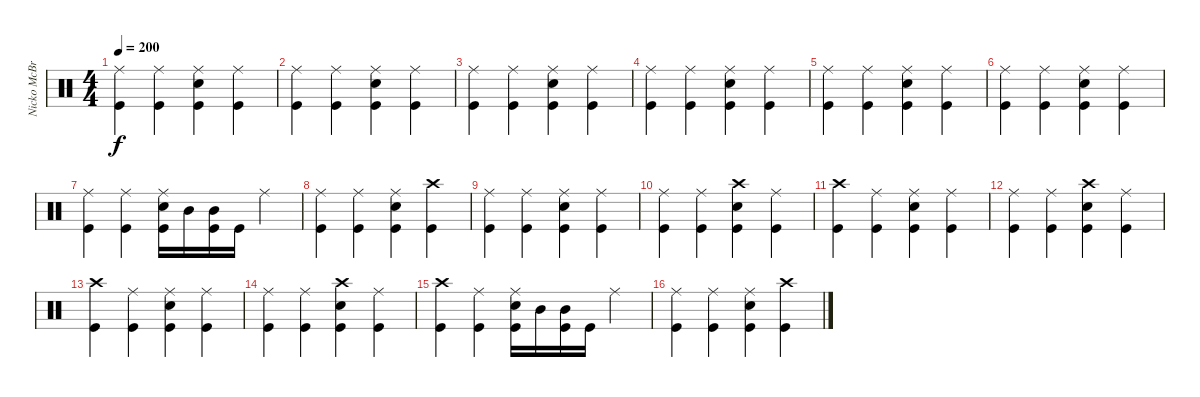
\track ("Nicko McBrain" "Nicko McBr") {instrument percussion}
\staff {score}
\articulation defaults
\ts (4 4)
\tempo 200
\clef neutral
\ks c
("Ride (middle)" "Kick (hit)").4{dy f} ("Ride (middle)" "Kick (hit)").4 ("Ride (middle)" "Electric Snare (hit)" "Kick (hit)").4 ("Ride (middle)" "Kick (hit)").4 |
("Ride (middle)" "Kick (hit)").4 ("Ride (middle)" "Kick (hit)").4 ("Ride (middle)" "Electric Snare (hit)" "Kick (hit)").4 ("Ride (middle)" "Kick (hit)").4 |
("Ride (middle)" "Kick (hit)").4 ("Ride (middle)" "Kick (hit)").4 ("Ride (middle)" "Electric Snare (hit)" "Kick (hit)").4 ("Ride (middle)" "Kick (hit)").4 |
("Ride (middle)" "Kick (hit)").4 ("Ride (middle)" "Kick (hit)").4 ("Ride (middle)" "Electric Snare (hit)" "Kick (hit)").4 ("Ride (middle)" "Kick (hit)").4 |
("Ride (middle)" "Kick (hit)").4 ("Ride (middle)" "Kick (hit)").4 ("Ride (middle)" "Electric Snare (hit)" "Kick (hit)").4 ("Ride (middle)" "Kick (hit)").4 |
("Ride (middle)" "Kick (hit)").4 ("Ride (middle)" "Kick (hit)").4 ("Ride (middle)" "Electric Snare (hit)" "Kick (hit)").4 ("Ride (middle)" "Kick (hit)").4 |
("Ride (middle)" "Kick (hit)").4 ("Ride (middle)" "Kick (hit)").4 ("Ride (middle)" "Electric Snare (hit)" "Kick (hit)").16 "Mid Tom (hit)".16 ("Mid Tom (hit)" "Kick (hit)").16 "Kick (hit)".16 "Ride (middle)".4 |
("Ride (middle)" "Kick (hit)").4 ("Ride (middle)" "Kick (hit)").4 ("Ride (middle)" "Electric Snare (hit)" "Kick (hit)").4 ("Crash high (hit)" "Kick (hit)").4 |
("Ride (middle)" "Kick (hit)").4 ("Ride (middle)" "Kick (hit)").4 ("Ride (middle)" "Electric Snare (hit)" "Kick (hit)").4 ("Ride (middle)" "Kick (hit)").4 |
("Ride (middle)" "Kick (hit)").4 ("Ride (middle)" "Kick (hit)").4 ("Crash high (hit)" "Electric Snare (hit)" "Kick (hit)").4 ("Ride (middle)" "Kick (hit)").4 |
("Crash high (hit)" "Kick (hit)").4 ("Ride (middle)" "Kick (hit)").4 ("Ride (middle)" "Electric Snare (hit)" "Kick (hit)").4 ("Ride (middle)" "Kick (hit)").4 |
("Ride (middle)" "Kick (hit)").4 ("Ride (middle)" "Kick (hit)").4 ("Crash high (hit)" "Electric Snare (hit)" "Kick (hit)").4 ("Ride (middle)" "Kick (hit)").4 |
("Crash high (hit)" "Kick (hit)").4 ("Ride (middle)" "Kick (hit)").4 ("Ride (middle)" "Electric Snare (hit)" "Kick (hit)").4 ("Ride (middle)" "Kick (hit)").4 |
("Ride (middle)" "Kick (hit)").4 ("Ride (middle)" "Kick (hit)").4 ("Crash high (hit)" "Electric Snare (hit)" "Kick (hit)").4 ("Ride (middle)" "Kick (hit)").4 |
("Crash high (hit)" "Kick (hit)").4 ("Ride (middle)" "Kick (hit)").4 ("Ride (middle)" "Electric Snare (hit)" "Kick (hit)").16 "Mid Tom (hit)".16 ("Mid Tom (hit)" "Kick (hit)").16 "Kick (hit)".16 "Ride (middle)".4 |
("Ride (middle)" "Kick (hit)").4 ("Ride (middle)" "Kick (hit)").4 ("Ride (middle)" "Electric Snare (hit)" "Kick (hit)").4 ("Crash high (hit)" "Kick (hit)").4
